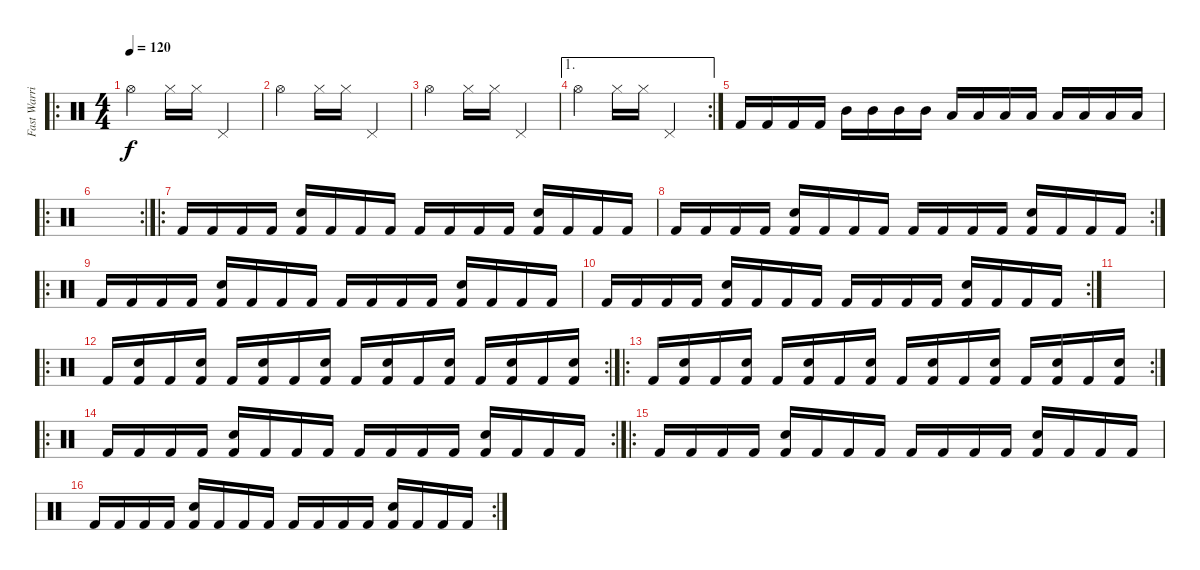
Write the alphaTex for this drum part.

\track ("Fast Warrior" "Fast Warri") {instrument percussion}
\staff {score}
\articulation defaults
\ro
\ts (4 4)
\tempo 120
\clef neutral
\ks c "Hi-Hat (open)".4{dy f} "Hi-Hat (closed)".16 "Hi-Hat (closed)".16 "Pedal Hi-Hat (hit)".4
|
"Hi-Hat (open)".4 "Hi-Hat (closed)".16 "Hi-Hat (closed)".16 "Pedal Hi-Hat (hit)".4 |
"Hi-Hat (open)".4 "Hi-Hat (closed)".16 "Hi-Hat (closed)".16 "Pedal Hi-Hat (hit)".4 |
\ae 1
\rc 2 "Hi-Hat (open)".4 "Hi-Hat (closed)".16 "Hi-Hat (closed)".16 "Pedal Hi-Hat (hit)".4
|
"Kick (hit) 2".16 "Kick (hit) 2".16 "Kick (hit) 2".16 "Kick (hit) 2".16 "Mid Tom (hit)".16 "Mid Tom (hit)".16 "Mid Tom (hit)".16 "Mid Tom (hit)".16 "Low Tom (hit)".16 "Low Tom (hit)".16 "Low Tom (hit)".16 "Low Tom (hit)".16 "Low Floor Tom (hit)".16 "Low Floor Tom (hit)".16 "Low Floor Tom (hit)".16 "Low Floor Tom (hit)".16 |
\ro
\rc 2
|
\ro "Kick (hit) 2".16 "Kick (hit) 2".16 "Kick (hit) 2".16 "Kick (hit) 2".16
("Electric Snare (hit)" "Kick (hit) 2").16 "Kick (hit) 2".16 "Kick (hit) 2".16 "Kick (hit) 2".16 "Kick (hit) 2".16 "Kick (hit) 2".16 "Kick (hit) 2".16 "Kick (hit) 2".16 ("Electric Snare (hit)" "Kick (hit) 2").16 "Kick (hit) 2".16 "Kick (hit) 2".16 "Kick (hit) 2".16 |
\rc 2 "Kick (hit) 2".16 "Kick (hit) 2".16 "Kick (hit) 2".16 "Kick (hit) 2".16
("Electric Snare (hit)" "Kick (hit) 2").16 "Kick (hit) 2".16 "Kick (hit) 2".16 "Kick (hit) 2".16 "Kick (hit) 2".16 "Kick (hit) 2".16 "Kick (hit) 2".16 "Kick (hit) 2".16 ("Electric Snare (hit)" "Kick (hit) 2").16 "Kick (hit) 2".16 "Kick (hit) 2".16 "Kick (hit) 2".16 |
\ro "Kick (hit) 2".16 "Kick (hit) 2".16 "Kick (hit) 2".16 "Kick (hit) 2".16
("Electric Snare (hit)" "Kick (hit) 2").16 "Kick (hit) 2".16 "Kick (hit) 2".16 "Kick (hit) 2".16 "Kick (hit) 2".16 "Kick (hit) 2".16 "Kick (hit) 2".16 "Kick (hit) 2".16 ("Electric Snare (hit)" "Kick (hit) 2").16 "Kick (hit) 2".16 "Kick (hit) 2".16 "Kick (hit) 2".16 |
\rc 2 "Kick (hit) 2".16 "Kick (hit) 2".16 "Kick (hit) 2".16 "Kick (hit) 2".16
("Electric Snare (hit)" "Kick (hit) 2").16 "Kick (hit) 2".16 "Kick (hit) 2".16 "Kick (hit) 2".16 "Kick (hit) 2".16 "Kick (hit) 2".16 "Kick (hit) 2".16 "Kick (hit) 2".16 ("Electric Snare (hit)" "Kick (hit) 2").16 "Kick (hit) 2".16 "Kick (hit) 2".16 "Kick (hit) 2".16 |
|
\ro
\rc 2 "Kick (hit) 2".16
("Electric Snare (hit)" "Kick (hit) 2").16 "Kick (hit) 2".16 ("Electric Snare (hit)" "Kick (hit) 2").16 "Kick (hit) 2".16 ("Electric Snare (hit)" "Kick (hit) 2").16 "Kick (hit) 2".16 ("Electric Snare (hit)" "Kick (hit) 2").16 "Kick (hit) 2".16 ("Electric Snare (hit)" "Kick (hit) 2").16 "Kick (hit) 2".16 ("Electric Snare (hit)" "Kick (hit) 2").16 "Kick (hit) 2".16 ("Electric Snare (hit)" "Kick (hit) 2").16 "Kick (hit) 2".16 ("Electric Snare (hit)" "Kick (hit) 2").16 |
\ro
\rc 2 "Kick (hit) 2".16
("Electric Snare (hit)" "Kick (hit) 2").16 "Kick (hit) 2".16 ("Electric Snare (hit)" "Kick (hit) 2").16 "Kick (hit) 2".16 ("Electric Snare (hit)" "Kick (hit) 2").16 "Kick (hit) 2".16 ("Electric Snare (hit)" "Kick (hit) 2").16 "Kick (hit) 2".16 ("Electric Snare (hit)" "Kick (hit) 2").16 "Kick (hit) 2".16 ("Electric Snare (hit)" "Kick (hit) 2").16 "Kick (hit) 2".16 ("Electric Snare (hit)" "Kick (hit) 2").16 "Kick (hit) 2".16 ("Electric Snare (hit)" "Kick (hit) 2").16 |
\ro
\rc 2 "Kick (hit) 2".16 "Kick (hit) 2".16 "Kick (hit) 2".16 "Kick (hit) 2".16
("Electric Snare (hit)" "Kick (hit) 2").16 "Kick (hit) 2".16 "Kick (hit) 2".16 "Kick (hit) 2".16 "Kick (hit) 2".16 "Kick (hit) 2".16 "Kick (hit) 2".16 "Kick (hit) 2".16 ("Electric Snare (hit)" "Kick (hit) 2").16 "Kick (hit) 2".16 "Kick (hit) 2".16 "Kick (hit) 2".16 |
\ro "Kick (hit) 2".16 "Kick (hit) 2".16 "Kick (hit) 2".16 "Kick (hit) 2".16
("Electric Snare (hit)" "Kick (hit) 2").16 "Kick (hit) 2".16 "Kick (hit) 2".16 "Kick (hit) 2".16 "Kick (hit) 2".16 "Kick (hit) 2".16 "Kick (hit) 2".16 "Kick (hit) 2".16 ("Electric Snare (hit)" "Kick (hit) 2").16 "Kick (hit) 2".16 "Kick (hit) 2".16 "Kick (hit) 2".16 |
\rc 2 "Kick (hit) 2".16 "Kick (hit) 2".16 "Kick (hit) 2".16 "Kick (hit) 2".16
("Electric Snare (hit)" "Kick (hit) 2").16 "Kick (hit) 2".16 "Kick (hit) 2".16 "Kick (hit) 2".16 "Kick (hit) 2".16 "Kick (hit) 2".16 "Kick (hit) 2".16 "Kick (hit) 2".16 ("Electric Snare (hit)" "Kick (hit) 2").16 "Kick (hit) 2".16 "Kick (hit) 2".16 "Kick (hit) 2".16
